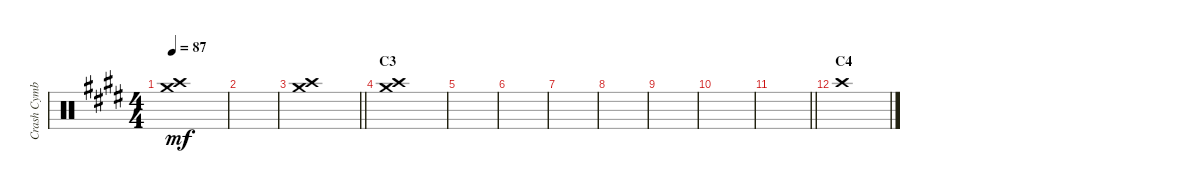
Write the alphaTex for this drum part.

\track ("Crash Cymbal" "Crash Cymb") {instrument percussion}
\staff {score}
\articulation defaults
\ts (4 4)
\tempo 87
\clef neutral
\ks e
("Crash high (hit)" "Crash medium (hit)").1{dy mf} |
|
\barLineRight lightlight
("Crash high (hit)" "Crash medium (hit)").1 |
\section ("" "C3")
("Crash high (hit)" "Crash medium (hit)").1 |
|
|
|
|
|
|
\barLineRight lightlight
|
\section ("" "C4")
"Crash high (hit)".1
